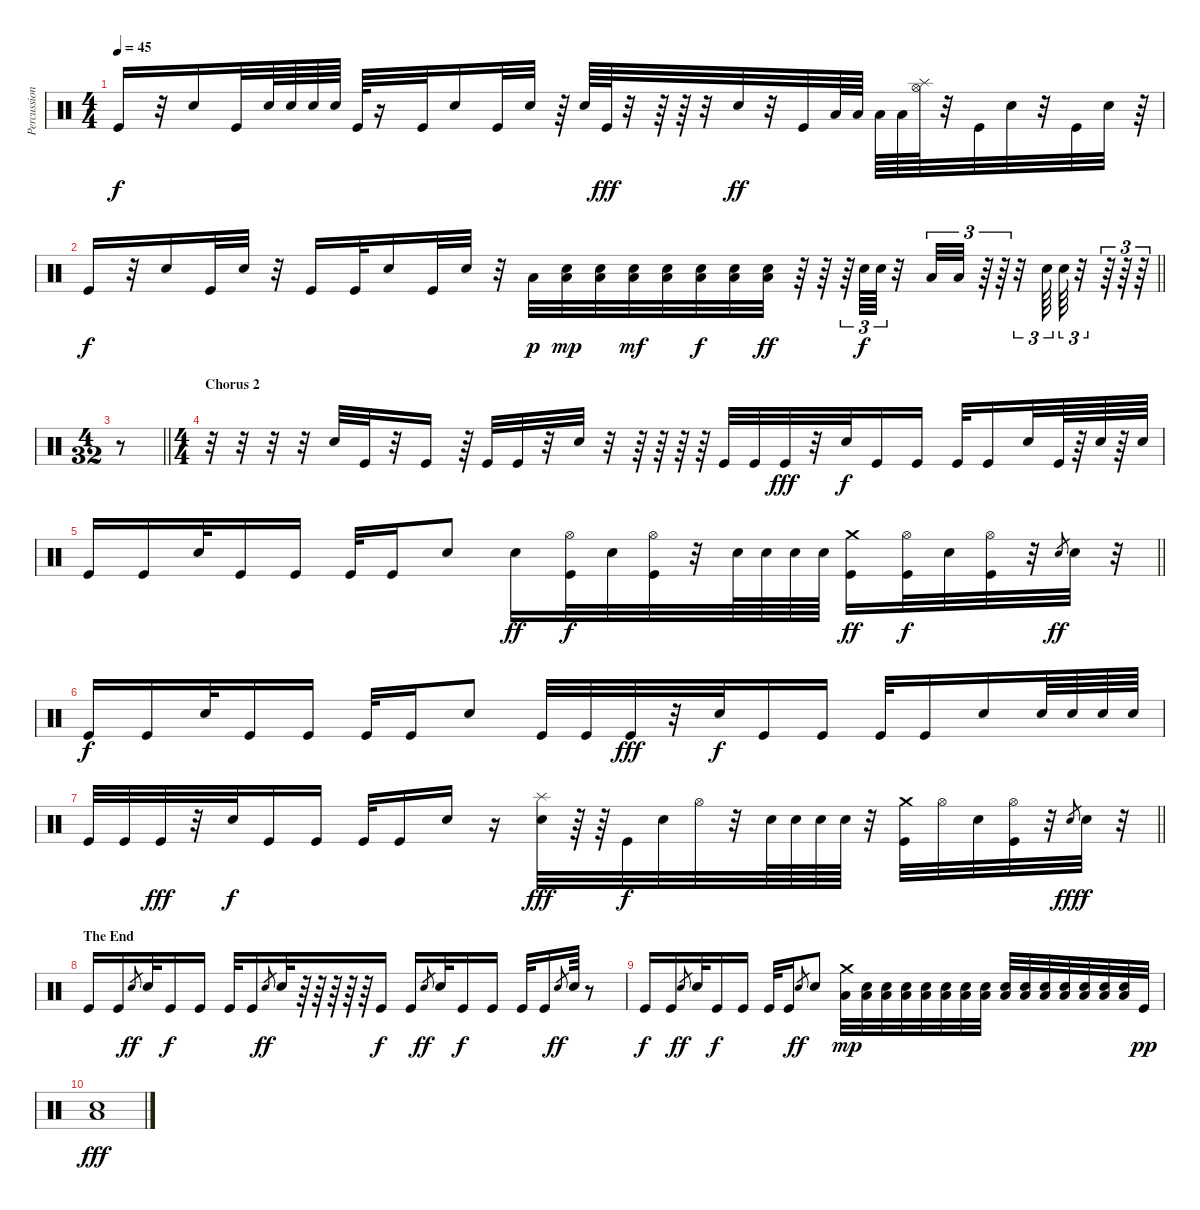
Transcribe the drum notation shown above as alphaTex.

\track ("Percussioni" "Percussion") {instrument percussion}
\staff {score}
\articulation defaults
\ts (4 4)
\tempo 45
\clef neutral
\ks c "Kick (hit)".16{dy f}
r.32 "Snare (hit) 2".16 "Kick (hit)".32 "Snare (hit) 2".64 "Snare (hit) 2".64 "Snare (hit) 2".64 "Snare (hit) 2".64 "Kick (hit)".64 r.16 "Kick (hit)".32 "Snare (hit) 2".16 "Kick (hit)".32 "Snare (hit) 2".32 r.64 "Snare (hit) 2".64 "Kick (hit)".64{dy fff} r.32 r.64 r.64 r.32 "Snare (hit) 2".32{dy ff} r.32 "Kick (hit)".32 "Low Floor Tom (hit)".64 "Low Floor Tom (hit)".64 "Low Floor Tom (hit)".64 "Low Floor Tom (hit)".64 ("Splash (hit)" "Hi-Hat (open)").64 r.32 "Kick (hit)".32 "Snare (hit) 2".32 r.32 "Kick (hit)".32 "Snare (hit) 2".32 r.64 |
\barLineRight lightlight "Kick (hit)".16{dy f}
r.32 "Snare (hit) 2".16 "Kick (hit)".32 "Snare (hit) 2".32 r.32 "Kick (hit)".16 "Kick (hit)".32 "Snare (hit) 2".16 "Kick (hit)".32 "Snare (hit) 2".32 r.32 "Low Floor Tom (hit)".32{dy p} ("Low Floor Tom (hit)" "Electric Snare (hit)").32{dy mp} ("Low Floor Tom (hit)" "Electric Snare (hit)").32 ("Low Floor Tom (hit)" "Electric Snare (hit)").32{dy mf} ("Low Floor Tom (hit)" "Electric Snare (hit)").32 ("Low Floor Tom (hit)" "Electric Snare (hit)").32{dy f} ("Low Floor Tom (hit)" "Electric Snare (hit)").32 ("Low Floor Tom (hit)" "Electric Snare (hit)").32{dy ff} r.64 r.64 r.64{tu (3 2)} "Snare (hit) 2".64{tu (3 2) dy f} "Snare (hit) 2".64{tu (3 2)} r.32 "Low Tom (hit)".32{tu (3 2)} "Low Floor Tom (hit)".32{tu (3 2)} r.64{tu (3 2)} r.64{tu (3 2)} r.32{tu (3 2)} "Snare (hit) 2".64{tu (3 2)} "Snare (hit) 2".64{tu (3 2)} r.32{tu (3 2)} r.64{tu (3 2)} r.64{tu (3 2)} r.64{tu (3 2)} |
\ts (4 32)
\barLineRight lightlight
r.8 |
\ts (4 4)
\section ("" "Chorus 2")
r.32 r.32 r.32 r.32 "Snare (hit) 2".32 "Kick (hit)".32 r.32 "Kick (hit)".16 r.64 "Kick (hit)".32 "Kick (hit)".32 r.32 "Snare (hit) 2".32 r.32 r.64 r.64 r.64 r.64 "Kick (hit)".32 "Kick (hit)".32 "Kick (hit)".32{dy fff} r.32 "Snare (hit) 2".32{dy f} "Kick (hit)".16 "Kick (hit)".16 "Kick (hit)".32 "Kick (hit)".16 "Snare (hit) 2".32 "Kick (hit)".64 r.64 "Snare (hit) 2".64 r.64 "Snare (hit) 2".64 |
\barLineRight lightlight "Kick (hit)".16 "Kick (hit)".16 "Snare (hit) 2".32 "Kick (hit)".16 "Kick (hit)".16 "Kick (hit)".32 "Kick (hit)".16 "Snare (hit) 2".8 "Snare (hit) 2".16{dy ff}
("Hi-Hat (open)" "Kick (hit)").32{dy f} "Snare (hit) 2".32 ("Hi-Hat (open)" "Kick (hit)").32 r.32 "Snare (hit) 2".64 "Snare (hit) 2".64 "Snare (hit) 2".64 "Snare (hit) 2".64 ("Crash medium (hit)" "Kick (hit)").16{dy ff} ("Hi-Hat (open)" "Kick (hit)").32{dy f} "Snare (hit) 2".32 ("Hi-Hat (open)" "Kick (hit)").32 r.32 "Snare (hit) 2".8{gr dy ff} "Snare (hit) 2".32 r.32 |
"Kick (hit)".16{dy f} "Kick (hit)".16 "Snare (hit) 2".32 "Kick (hit)".16 "Kick (hit)".16 "Kick (hit)".32 "Kick (hit)".16 "Snare (hit) 2".8 "Kick (hit)".32 "Kick (hit)".32 "Kick (hit)".32{dy fff} r.32 "Snare (hit) 2".32{dy f} "Kick (hit)".16 "Kick (hit)".16 "Kick (hit)".32 "Kick (hit)".16 "Snare (hit) 2".16 "Snare (hit) 2".64 "Snare (hit) 2".64 "Snare (hit) 2".64 "Snare (hit) 2".64 |
\barLineRight lightlight "Kick (hit)".32 "Kick (hit)".32 "Kick (hit)".32{dy fff}
r.32 "Snare (hit) 2".32{dy f} "Kick (hit)".16 "Kick (hit)".16 "Kick (hit)".32 "Kick (hit)".16 "Snare (hit) 2".16 r.16 ("Splash (hit)" "Snare (hit) 2").32{dy fff} r.64 r.64 "Kick (hit)".32{dy f} "Snare (hit) 2".32 "Hi-Hat (open)".32 r.32 "Snare (hit) 2".64 "Snare (hit) 2".64 "Snare (hit) 2".64 "Snare (hit) 2".64 r.32 ("Crash medium (hit)" "Kick (hit)").32 "Hi-Hat (open)".32 "Snare (hit) 2".32 ("Hi-Hat (open)" "Kick (hit)").32 r.32 "Snare (hit) 2".8{gr dy fff} "Snare (hit) 2".32{dy f} r.32 |
\section ("" "The End")
"Kick (hit)".16 "Kick (hit)".16 "Snare (hit) 2".8{gr dy ff} "Snare (hit) 2".32 "Kick (hit)".16{dy f} "Kick (hit)".16 "Kick (hit)".32 "Kick (hit)".16 "Snare (hit) 2".8{gr dy ff} "Snare (hit) 2".32 r.64 r.64 r.64 r.64 r.64 "Kick (hit)".16{dy f} "Kick (hit)".16 "Snare (hit) 2".8{gr dy ff} "Snare (hit) 2".32 "Kick (hit)".16{dy f} "Kick (hit)".16 "Kick (hit)".32 "Kick (hit)".16 "Snare (hit) 2".8{gr dy ff} "Snare (hit) 2".64 r.8 |
"Kick (hit)".16{dy f} "Kick (hit)".16 "Snare (hit) 2".8{gr dy ff} "Snare (hit) 2".32 "Kick (hit)".16{dy f} "Kick (hit)".16 "Kick (hit)".32 "Kick (hit)".16 "Snare (hit) 2".8{gr dy ff} "Snare (hit) 2".8 ("Low Floor Tom (hit)" "Crash medium (hit)").32{dy mp} ("Low Floor Tom (hit)" "Electric Snare (hit)").32 ("Low Floor Tom (hit)" "Electric Snare (hit)").32 ("Low Floor Tom (hit)" "Electric Snare (hit)").32 ("Low Floor Tom (hit)" "Electric Snare (hit)").32 ("Low Floor Tom (hit)" "Electric Snare (hit)").32 ("Low Floor Tom (hit)" "Electric Snare (hit)").32 ("Low Floor Tom (hit)" "Electric Snare (hit)").32 ("Low Floor Tom (hit)" "Electric Snare (hit)").32 ("Low Floor Tom (hit)" "Electric Snare (hit)").32 ("Low Floor Tom (hit)" "Electric Snare (hit)").32 ("Low Floor Tom (hit)" "Electric Snare (hit)").32 ("Low Floor Tom (hit)" "Electric Snare (hit)").32 ("Low Floor Tom (hit)" "Electric Snare (hit)").32 ("Low Floor Tom (hit)" "Electric Snare (hit)").32 "Kick (hit)".32{dy pp} |
("Low Floor Tom (hit)" "Snare (hit) 2").1{dy fff}
